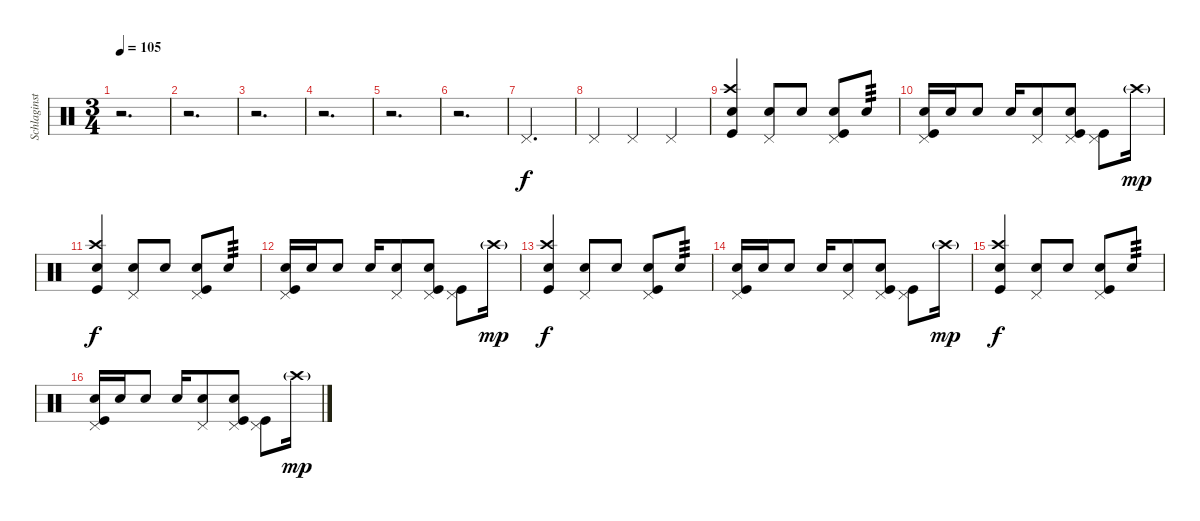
\track ("Schlaginstrumente - Auswahl" "Schlaginst") {instrument percussion}
\staff {score}
\articulation defaults
\ts (3 4)
\tempo 105
\clef neutral
\ks c
r.2{d dy f} |
r.2{d} |
r.2{d} |
r.2{d} |
r.2{d} |
r.2{d} |
"Pedal Hi-Hat (hit)".2{d} |
"Pedal Hi-Hat (hit)".4 "Pedal Hi-Hat (hit)".4 "Pedal Hi-Hat (hit)".4 |
("Snare (hit) 2" "Crash high (hit)" "Kick (hit)").4 ("Snare (hit) 2" "Pedal Hi-Hat (hit)").8 "Snare (hit) 2".8 ("Snare (hit) 2" "Pedal Hi-Hat (hit)" "Kick (hit)").8 "Snare (hit) 2".8{tp 3} |
("Pedal Hi-Hat (hit)" "Kick (hit)" "Snare (hit) 2").16 "Snare (hit) 2".16 "Snare (hit) 2".8 "Snare (hit) 2".16 ("Pedal Hi-Hat (hit)" "Snare (hit) 2").8 ("Snare (hit) 2" "Pedal Hi-Hat (hit)" "Kick (hit)").8 ("Pedal Hi-Hat (hit)" "Kick (hit)").8 "Crash high (hit)"{g}.16{dy mp} |
("Snare (hit) 2" "Crash high (hit)" "Kick (hit)").4{dy f} ("Snare (hit) 2" "Pedal Hi-Hat (hit)").8 "Snare (hit) 2".8 ("Snare (hit) 2" "Pedal Hi-Hat (hit)" "Kick (hit)").8 "Snare (hit) 2".8{tp 3} |
("Pedal Hi-Hat (hit)" "Kick (hit)" "Snare (hit) 2").16 "Snare (hit) 2".16 "Snare (hit) 2".8 "Snare (hit) 2".16 ("Pedal Hi-Hat (hit)" "Snare (hit) 2").8 ("Snare (hit) 2" "Pedal Hi-Hat (hit)" "Kick (hit)").8 ("Pedal Hi-Hat (hit)" "Kick (hit)").8 "Crash high (hit)"{g}.16{dy mp} |
("Snare (hit) 2" "Crash high (hit)" "Kick (hit)").4{dy f} ("Snare (hit) 2" "Pedal Hi-Hat (hit)").8 "Snare (hit) 2".8 ("Snare (hit) 2" "Pedal Hi-Hat (hit)" "Kick (hit)").8 "Snare (hit) 2".8{tp 3} |
("Pedal Hi-Hat (hit)" "Kick (hit)" "Snare (hit) 2").16 "Snare (hit) 2".16 "Snare (hit) 2".8 "Snare (hit) 2".16 ("Pedal Hi-Hat (hit)" "Snare (hit) 2").8 ("Snare (hit) 2" "Pedal Hi-Hat (hit)" "Kick (hit)").8 ("Pedal Hi-Hat (hit)" "Kick (hit)").8 "Crash high (hit)"{g}.16{dy mp} |
("Snare (hit) 2" "Crash high (hit)" "Kick (hit)").4{dy f} ("Snare (hit) 2" "Pedal Hi-Hat (hit)").8 "Snare (hit) 2".8 ("Snare (hit) 2" "Pedal Hi-Hat (hit)" "Kick (hit)").8 "Snare (hit) 2".8{tp 3} |
("Pedal Hi-Hat (hit)" "Kick (hit)" "Snare (hit) 2").16 "Snare (hit) 2".16 "Snare (hit) 2".8 "Snare (hit) 2".16 ("Pedal Hi-Hat (hit)" "Snare (hit) 2").8 ("Snare (hit) 2" "Pedal Hi-Hat (hit)" "Kick (hit)").8 ("Pedal Hi-Hat (hit)" "Kick (hit)").8 "Crash high (hit)"{g}.16{dy mp}
